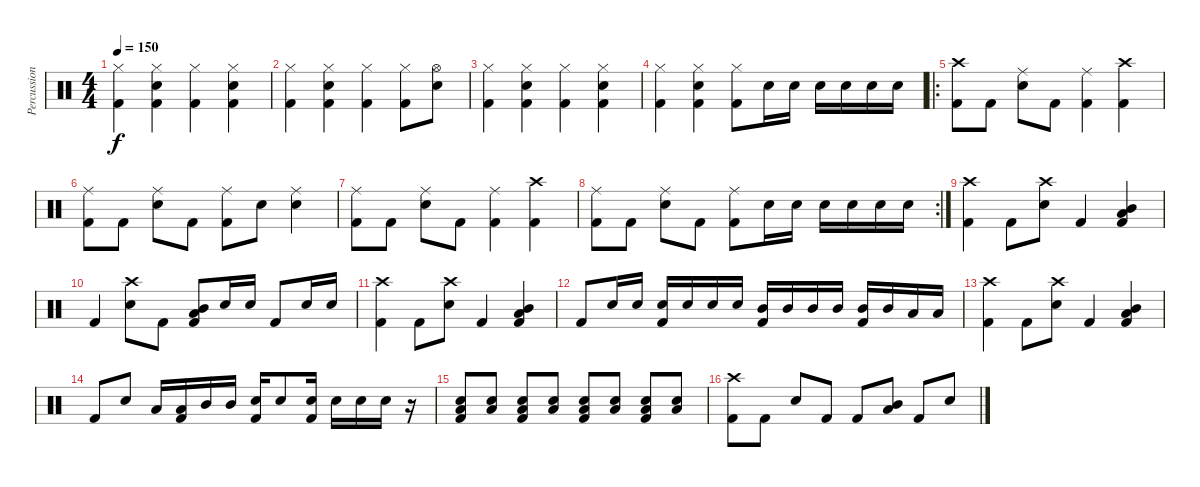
\track ("Percussion" "Percussion") {instrument percussion}
\staff {score}
\articulation defaults
\ts (4 4)
\tempo 150
\clef neutral
\ks c
("Hi-Hat (closed)" "Kick (hit) 2").4{dy f} ("Hi-Hat (closed)" "Kick (hit) 2" "Snare (hit) 2").4 ("Hi-Hat (closed)" "Kick (hit) 2").4 ("Hi-Hat (closed)" "Kick (hit) 2" "Snare (hit) 2").4 |
("Hi-Hat (closed)" "Kick (hit) 2").4 ("Hi-Hat (closed)" "Kick (hit) 2" "Snare (hit) 2").4 ("Hi-Hat (closed)" "Kick (hit) 2").4 ("Hi-Hat (closed)" "Kick (hit) 2").8 ("Hi-Hat (open)" "Snare (hit) 2").8 |
("Hi-Hat (closed)" "Kick (hit) 2").4 ("Hi-Hat (closed)" "Kick (hit) 2" "Snare (hit) 2").4 ("Hi-Hat (closed)" "Kick (hit) 2").4 ("Hi-Hat (closed)" "Kick (hit) 2" "Snare (hit) 2").4 |
("Hi-Hat (closed)" "Kick (hit) 2").4 ("Hi-Hat (closed)" "Kick (hit) 2" "Snare (hit) 2").4 ("Hi-Hat (closed)" "Kick (hit) 2").8 "Snare (hit) 2".16 "Snare (hit) 2".16 "Snare (hit) 2".16 "Snare (hit) 2".16 "Snare (hit) 2".16 "Snare (hit) 2".16 |
\ro
("Crash high (hit)" "Kick (hit) 2").8 "Kick (hit) 2".8 ("Ride (middle)" "Snare (hit) 2").8 "Kick (hit) 2".8 ("Ride (middle)" "Kick (hit) 2").4 ("Crash high (hit)" "Kick (hit) 2").4 |
("Ride (middle)" "Kick (hit) 2").8 "Kick (hit) 2".8 ("Ride (middle)" "Snare (hit) 2").8 "Kick (hit) 2".8 ("Ride (middle)" "Kick (hit) 2").8 "Snare (hit) 2".8 ("Ride (middle)" "Snare (hit) 2").4 |
("Ride (middle)" "Kick (hit) 2").8 "Kick (hit) 2".8 ("Ride (middle)" "Snare (hit) 2").8 "Kick (hit) 2".8 ("Ride (middle)" "Kick (hit) 2").4 ("Crash high (hit)" "Kick (hit) 2").4 |
\rc 2
("Ride (middle)" "Kick (hit) 2").8 "Kick (hit) 2".8 ("Ride (middle)" "Snare (hit) 2").8 "Kick (hit) 2".8 ("Ride (middle)" "Kick (hit) 2").8 "Snare (hit) 2".16 "Snare (hit) 2".16 "Snare (hit) 2".16 "Snare (hit) 2".16 "Snare (hit) 2".16 "Snare (hit) 2".16 |
("Crash high (hit)" "Kick (hit) 2").4 "Kick (hit) 2".8 ("Crash high (hit)" "Snare (hit) 2").8 "Kick (hit) 2".4 ("Mid Tom (hit)" "Kick (hit) 2" "Low Floor Tom (hit)").4 |
"Kick (hit) 2".4 ("Crash high (hit)" "Snare (hit) 2").8 "Kick (hit) 2".8 ("Mid Tom (hit)" "Kick (hit) 2" "Low Floor Tom (hit)").8 "Snare (hit) 2".16 "Snare (hit) 2".16 "Kick (hit) 2".8 "Snare (hit) 2".16 "Snare (hit) 2".16 |
("Crash high (hit)" "Kick (hit) 2").4 "Kick (hit) 2".8 ("Crash high (hit)" "Snare (hit) 2").8 "Kick (hit) 2".4 ("Mid Tom (hit)" "Kick (hit) 2" "Low Floor Tom (hit)").4 |
"Kick (hit) 2".8 "Snare (hit) 2".16 "Snare (hit) 2".16 ("Snare (hit) 2" "Kick (hit) 2").16 "Snare (hit) 2".16 "Snare (hit) 2".16 "Snare (hit) 2".16 ("Mid Tom (hit)" "Kick (hit) 2").16 "Mid Tom (hit)".16 "Mid Tom (hit)".16 "Mid Tom (hit)".16 ("Mid Tom (hit)" "Kick (hit) 2").16 "Mid Tom (hit)".16 "Low Floor Tom (hit)".16 "Low Floor Tom (hit)".16 |
("Crash high (hit)" "Kick (hit) 2").4 "Kick (hit) 2".8 ("Crash high (hit)" "Snare (hit) 2").8 "Kick (hit) 2".4 ("Mid Tom (hit)" "Kick (hit) 2" "Low Floor Tom (hit)").4 |
"Kick (hit) 2".8 "Snare (hit) 2".8 "Low Floor Tom (hit)".16 ("Low Floor Tom (hit)" "Kick (hit) 2").16 "Mid Tom (hit)".16 "Mid Tom (hit)".16 ("Snare (hit) 2" "Kick (hit) 2").16 "Snare (hit) 2".8 ("Snare (hit) 2" "Kick (hit) 2").16 "Snare (hit) 2".16 "Snare (hit) 2".16 "Snare (hit) 2".16 r.16 |
("Low Floor Tom (hit)" "Snare (hit) 2" "Kick (hit) 2").8 ("Low Floor Tom (hit)" "Snare (hit) 2").8 ("Low Floor Tom (hit)" "Snare (hit) 2" "Kick (hit) 2").8 ("Low Floor Tom (hit)" "Snare (hit) 2").8 ("Low Floor Tom (hit)" "Snare (hit) 2" "Kick (hit) 2").8 ("Low Floor Tom (hit)" "Snare (hit) 2").8 ("Low Floor Tom (hit)" "Snare (hit) 2" "Kick (hit) 2").8 ("Low Floor Tom (hit)" "Snare (hit) 2").8 |
("Crash high (hit)" "Kick (hit) 2").8 "Kick (hit) 2".8 "Snare (hit) 2".8 "Kick (hit) 2".8 "Kick (hit) 2".8 ("Mid Tom (hit)" "Low Floor Tom (hit)").8 "Kick (hit) 2".8 "Snare (hit) 2".8
